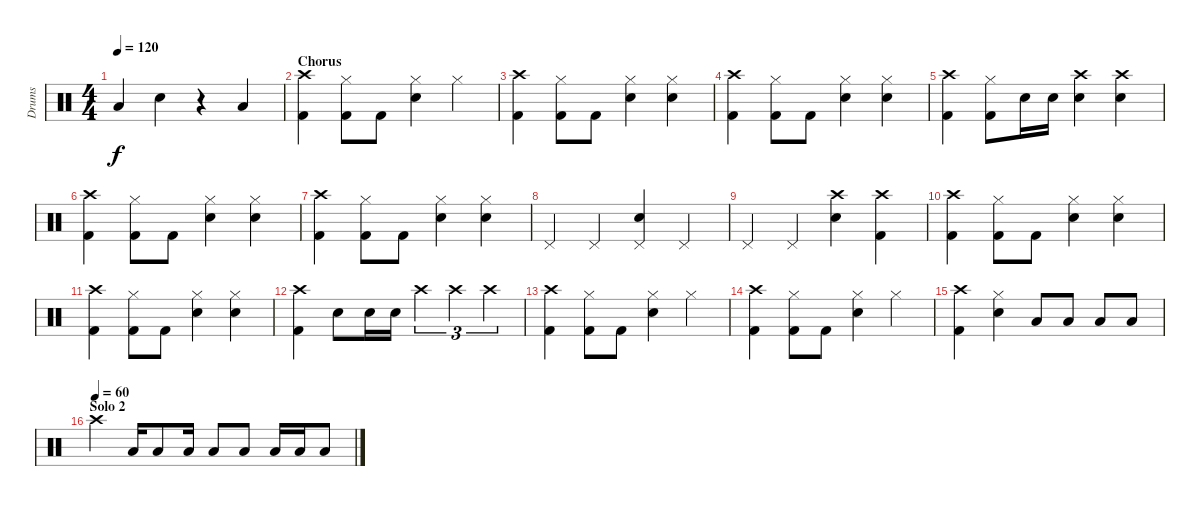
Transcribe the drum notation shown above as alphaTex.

\track ("Drums" "Drums") {instrument percussion}
\staff {score}
\articulation defaults
\ts (4 4)
\tempo 120
\clef neutral
\ks c "Low Tom (hit)".4{dy f} "Snare (hit) 2".4
r.4 "Low Tom (hit)".4 |
\section ("" "Chorus")
("Crash high (hit)" "Kick (hit) 2").4 ("Hi-Hat (closed)" "Kick (hit) 2").8 "Kick (hit) 2".8 ("Hi-Hat (closed)" "Snare (hit) 2").4 "Hi-Hat (closed)".4 |
("Crash high (hit)" "Kick (hit) 2").4 ("Hi-Hat (closed)" "Kick (hit) 2").8 "Kick (hit) 2".8 ("Hi-Hat (closed)" "Snare (hit) 2").4 ("Hi-Hat (closed)" "Snare (hit) 2").4 |
("Crash high (hit)" "Kick (hit) 2").4 ("Hi-Hat (closed)" "Kick (hit) 2").8 "Kick (hit) 2".8 ("Hi-Hat (closed)" "Snare (hit) 2").4 ("Hi-Hat (closed)" "Snare (hit) 2").4 |
("Crash high (hit)" "Kick (hit) 2").4 ("Hi-Hat (closed)" "Kick (hit) 2").8 "Snare (hit) 2".16 "Snare (hit) 2".16 ("Crash high (hit)" "Snare (hit) 2").4 ("Crash high (hit)" "Snare (hit) 2").4 |
("Crash high (hit)" "Kick (hit) 2").4 ("Hi-Hat (closed)" "Kick (hit) 2").8 "Kick (hit) 2".8 ("Hi-Hat (closed)" "Snare (hit) 2").4 ("Hi-Hat (closed)" "Snare (hit) 2").4 |
("Crash high (hit)" "Kick (hit) 2").4 ("Hi-Hat (closed)" "Kick (hit) 2").8 "Kick (hit) 2".8 ("Hi-Hat (closed)" "Snare (hit) 2").4 ("Hi-Hat (closed)" "Snare (hit) 2").4 |
"Pedal Hi-Hat (hit)".4 "Pedal Hi-Hat (hit)".4 ("Pedal Hi-Hat (hit)" "Snare (hit) 2").4 "Pedal Hi-Hat (hit)".4 |
"Pedal Hi-Hat (hit)".4 "Pedal Hi-Hat (hit)".4 ("Crash high (hit)" "Snare (hit) 2").4 ("Crash high (hit)" "Kick (hit) 2").4 |
("Crash high (hit)" "Kick (hit) 2").4 ("Hi-Hat (closed)" "Kick (hit) 2").8 "Kick (hit) 2".8 ("Hi-Hat (closed)" "Snare (hit) 2").4 ("Hi-Hat (closed)" "Snare (hit) 2").4 |
("Crash high (hit)" "Kick (hit) 2").4 ("Hi-Hat (closed)" "Kick (hit) 2").8 "Kick (hit) 2".8 ("Hi-Hat (closed)" "Snare (hit) 2").4 ("Hi-Hat (closed)" "Snare (hit) 2").4 |
("Crash high (hit)" "Kick (hit) 2").4 "Snare (hit) 2".8 "Snare (hit) 2".16 "Snare (hit) 2".16 "Crash high (hit)".4{tu (3 2)} "Crash high (hit)".4{tu (3 2)} "Crash high (hit)".4{tu (3 2)} |
("Crash high (hit)" "Kick (hit) 2").4 ("Hi-Hat (closed)" "Kick (hit) 2").8 "Kick (hit) 2".8 ("Hi-Hat (closed)" "Snare (hit) 2").4 "Hi-Hat (closed)".4 |
("Crash high (hit)" "Kick (hit) 2").4 ("Hi-Hat (closed)" "Kick (hit) 2").8 "Kick (hit) 2".8 ("Hi-Hat (closed)" "Snare (hit) 2").4 "Hi-Hat (closed)".4 |
("Crash high (hit)" "Kick (hit) 2").4 ("Hi-Hat (closed)" "Snare (hit) 2").4 "Low Tom (hit)".8 "Low Tom (hit)".8 "Low Tom (hit)".8 "Low Tom (hit)".8 |
\section ("" "Solo 2")
\tempo (60)
"Crash high (hit)".4 "Low Tom (hit)".16 "Low Tom (hit)".8 "Low Tom (hit)".16 "Low Tom (hit)".8 "Low Tom (hit)".8 "Low Tom (hit)".16 "Low Tom (hit)".16 "Low Tom (hit)".8
